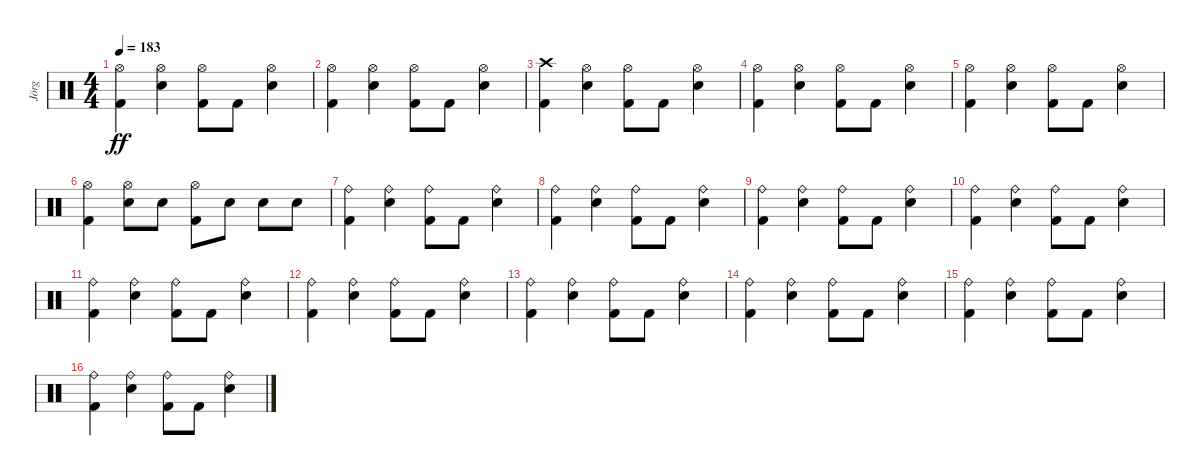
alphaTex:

\track ("Jörg" "Jörg") {instrument percussion}
\staff {score}
\articulation defaults
\ts (4 4)
\tempo 183
\clef neutral
\ks c
("Kick (hit) 2" "Hi-Hat (open)").4{dy ff} ("Snare (hit) 2" "Hi-Hat (open)").4 ("Kick (hit) 2" "Hi-Hat (open)").8 "Kick (hit) 2".8 ("Snare (hit) 2" "Hi-Hat (open)").4 |
("Kick (hit) 2" "Hi-Hat (open)").4 ("Snare (hit) 2" "Hi-Hat (open)").4 ("Kick (hit) 2" "Hi-Hat (open)").8 "Kick (hit) 2".8 ("Snare (hit) 2" "Hi-Hat (open)").4 |
("Kick (hit) 2" "Crash high (hit)").4 ("Snare (hit) 2" "Hi-Hat (open)").4 ("Kick (hit) 2" "Hi-Hat (open)").8 "Kick (hit) 2".8 ("Snare (hit) 2" "Hi-Hat (open)").4 |
("Kick (hit) 2" "Hi-Hat (open)").4 ("Snare (hit) 2" "Hi-Hat (open)").4 ("Kick (hit) 2" "Hi-Hat (open)").8 "Kick (hit) 2".8 ("Snare (hit) 2" "Hi-Hat (open)").4 |
("Kick (hit) 2" "Hi-Hat (open)").4 ("Snare (hit) 2" "Hi-Hat (open)").4 ("Kick (hit) 2" "Hi-Hat (open)").8 "Kick (hit) 2".8 ("Snare (hit) 2" "Hi-Hat (open)").4 |
("Hi-Hat (open)" "Kick (hit) 2").4 ("Snare (hit) 2" "Hi-Hat (open)").8 "Snare (hit) 2".8 ("Kick (hit) 2" "Hi-Hat (open)").8 "Snare (hit) 2".8 "Snare (hit) 2".8 "Snare (hit) 2".8 |
("Kick (hit) 2" "Ride (bell)").4 ("Snare (hit) 2" "Ride (bell)").4 ("Kick (hit) 2" "Ride (bell)").8 "Kick (hit) 2".8 ("Snare (hit) 2" "Ride (bell)").4 |
("Kick (hit) 2" "Ride (bell)").4 ("Snare (hit) 2" "Ride (bell)").4 ("Kick (hit) 2" "Ride (bell)").8 "Kick (hit) 2".8 ("Snare (hit) 2" "Ride (bell)").4 |
("Kick (hit) 2" "Ride (bell)").4 ("Snare (hit) 2" "Ride (bell)").4 ("Kick (hit) 2" "Ride (bell)").8 "Kick (hit) 2".8 ("Snare (hit) 2" "Ride (bell)").4 |
("Kick (hit) 2" "Ride (bell)").4 ("Snare (hit) 2" "Ride (bell)").4 ("Kick (hit) 2" "Ride (bell)").8 "Kick (hit) 2".8 ("Snare (hit) 2" "Ride (bell)").4 |
("Kick (hit) 2" "Ride (bell)").4 ("Snare (hit) 2" "Ride (bell)").4 ("Kick (hit) 2" "Ride (bell)").8 "Kick (hit) 2".8 ("Snare (hit) 2" "Ride (bell)").4 |
("Kick (hit) 2" "Ride (bell)").4 ("Snare (hit) 2" "Ride (bell)").4 ("Kick (hit) 2" "Ride (bell)").8 "Kick (hit) 2".8 ("Snare (hit) 2" "Ride (bell)").4 |
("Kick (hit) 2" "Ride (bell)").4 ("Snare (hit) 2" "Ride (bell)").4 ("Kick (hit) 2" "Ride (bell)").8 "Kick (hit) 2".8 ("Snare (hit) 2" "Ride (bell)").4 |
("Kick (hit) 2" "Ride (bell)").4 ("Snare (hit) 2" "Ride (bell)").4 ("Kick (hit) 2" "Ride (bell)").8 "Kick (hit) 2".8 ("Snare (hit) 2" "Ride (bell)").4 |
("Kick (hit) 2" "Ride (bell)").4 ("Snare (hit) 2" "Ride (bell)").4 ("Kick (hit) 2" "Ride (bell)").8 "Kick (hit) 2".8 ("Snare (hit) 2" "Ride (bell)").4 |
("Kick (hit) 2" "Ride (bell)").4 ("Snare (hit) 2" "Ride (bell)").4 ("Kick (hit) 2" "Ride (bell)").8 "Kick (hit) 2".8 ("Snare (hit) 2" "Ride (bell)").4
